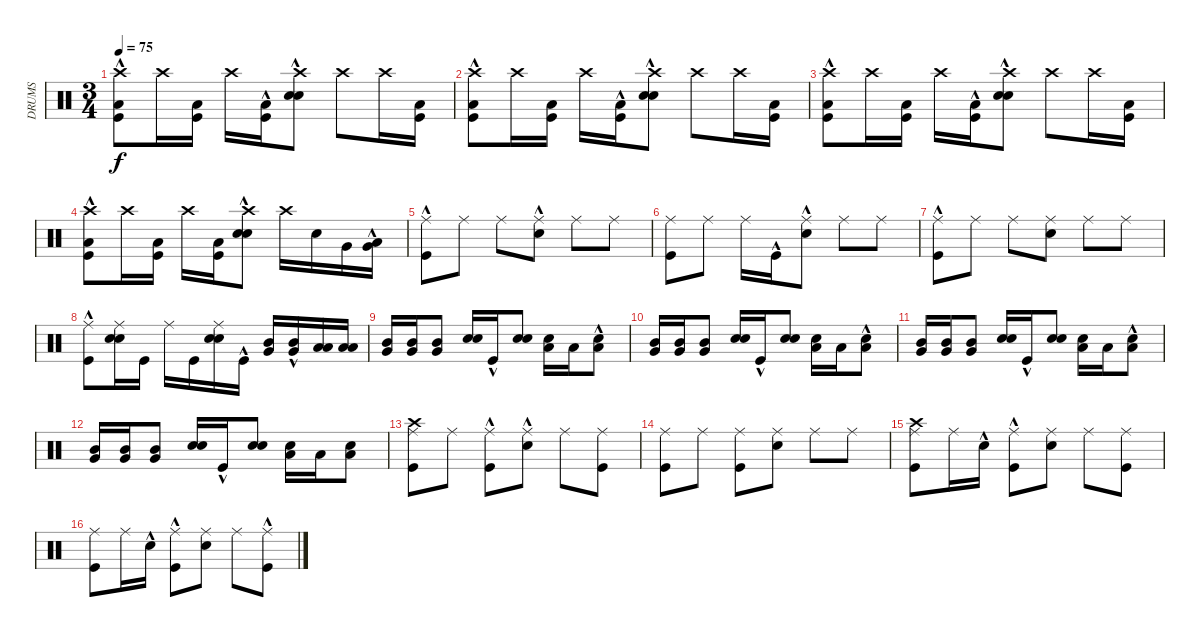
\track ("DRUMS" "DRUMS") {instrument percussion}
\staff {score}
\articulation defaults
\ts (3 4)
\tempo 75
\clef neutral
\ks c
("Kick (hit)"{hac} "Low Floor Tom (hit)"{hac} "Crash high (hit)").8{dy f} "Crash high (hit)".16 ("Kick (hit)" "Low Floor Tom (hit)").16 "Crash high (hit)".16 ("Kick (hit)"{hac} "Low Floor Tom (hit)").16 ("Snare (hit) 2"{hac} "Snare (hit) 2"{hac} "Crash high (hit)").8 "Crash high (hit)".8 "Crash high (hit)".16 ("Kick (hit)" "Low Floor Tom (hit)").16 |
("Kick (hit)"{hac} "Low Floor Tom (hit)"{hac} "Crash high (hit)").8 "Crash high (hit)".16 ("Kick (hit)" "Low Floor Tom (hit)").16 "Crash high (hit)".16 ("Kick (hit)"{hac} "Low Floor Tom (hit)").16 ("Snare (hit) 2"{hac} "Snare (hit) 2"{hac} "Crash high (hit)").8 "Crash high (hit)".8 "Crash high (hit)".16 ("Kick (hit)" "Low Floor Tom (hit)").16 |
("Kick (hit)"{hac} "Low Floor Tom (hit)"{hac} "Crash high (hit)").8 "Crash high (hit)".16 ("Kick (hit)" "Low Floor Tom (hit)").16 "Crash high (hit)".16 ("Kick (hit)"{hac} "Low Floor Tom (hit)").16 ("Snare (hit) 2"{hac} "Snare (hit) 2"{hac} "Crash high (hit)").8 "Crash high (hit)".8 "Crash high (hit)".16 ("Kick (hit)" "Low Floor Tom (hit)").16 |
("Kick (hit)"{hac} "Low Floor Tom (hit)"{hac} "Crash high (hit)").8 "Crash high (hit)".16 ("Kick (hit)" "Low Floor Tom (hit)").16 "Crash high (hit)".16 ("Kick (hit)" "Low Floor Tom (hit)").16 ("Snare (hit) 2"{hac} "Snare (hit) 2"{hac} "Crash high (hit)").8 "Crash high (hit)".16 "Snare (hit) 2".16 "Very Low Tom (hit)".16 ("Very Low Tom (hit)" "Low Tom (hit)"{hac}).16 |
("Kick (hit)"{hac} "Ride (middle)").8 "Ride (middle)".8 "Ride (middle)".8 ("Snare (hit) 2"{hac} "Ride (middle)").8 "Ride (middle)".8 "Ride (middle)".8 |
("Kick (hit)" "Ride (middle)").8 "Ride (middle)".8 "Ride (middle)".16 "Kick (hit)"{hac}.16 ("Snare (hit) 2"{hac} "Ride (middle)").8 "Ride (middle)".8 "Ride (middle)".8 |
("Kick (hit)"{hac} "Ride (middle)").8 "Ride (middle)".8 "Ride (middle)".8 ("Snare (hit) 2" "Ride (middle)").8 "Ride (middle)".8 "Ride (middle)".8 |
("Kick (hit)"{hac} "Ride (middle)").8 ("Snare (hit) 2" "Ride (middle)" "Snare (hit) 2").16 "Kick (hit)".16 "Ride (middle)".16 "Kick (hit)".16 ("Snare (hit) 2" "Ride (middle)" "Snare (hit) 2").16 "Kick (hit)"{hac}.16 ("Very Low Tom (hit)" "Mid Tom (hit)").16 ("Very Low Tom (hit)" "Mid Tom (hit)"{hac}).16 ("Low Floor Tom (hit)" "Low Floor Tom (hit)").16 ("Low Floor Tom (hit)" "Low Floor Tom (hit)").16 |
("Very Low Tom (hit)" "Mid Tom (hit)").16 ("Very Low Tom (hit)" "Mid Tom (hit)").16 ("Very Low Tom (hit)" "Mid Tom (hit)").8 ("Snare (hit) 2" "Snare (hit) 2").16 "Kick (hit)"{hac}.16 ("Snare (hit) 2" "Snare (hit) 2").8 ("Snare (hit) 2" "Low Floor Tom (hit)").16 "Low Floor Tom (hit)".16 ("Snare (hit) 2"{hac} "Low Floor Tom (hit)").8 |
("Very Low Tom (hit)" "Mid Tom (hit)").16 ("Very Low Tom (hit)" "Mid Tom (hit)").16 ("Very Low Tom (hit)" "Mid Tom (hit)").8 ("Snare (hit) 2" "Snare (hit) 2").16 "Kick (hit)"{hac}.16 ("Snare (hit) 2" "Snare (hit) 2").8 ("Snare (hit) 2" "Low Floor Tom (hit)").16 "Low Floor Tom (hit)".16 ("Snare (hit) 2"{hac} "Low Floor Tom (hit)").8 |
("Very Low Tom (hit)" "Mid Tom (hit)").16 ("Very Low Tom (hit)" "Mid Tom (hit)").16 ("Very Low Tom (hit)" "Mid Tom (hit)").8 ("Snare (hit) 2" "Snare (hit) 2").16 "Kick (hit)"{hac}.16 ("Snare (hit) 2" "Snare (hit) 2").8 ("Snare (hit) 2" "Low Floor Tom (hit)").16 "Low Floor Tom (hit)".16 ("Snare (hit) 2"{hac} "Low Floor Tom (hit)").8 |
("Very Low Tom (hit)" "Mid Tom (hit)").16 ("Very Low Tom (hit)" "Mid Tom (hit)").16 ("Very Low Tom (hit)" "Mid Tom (hit)").8 ("Snare (hit) 2" "Snare (hit) 2").16 "Kick (hit)"{hac}.16 ("Snare (hit) 2" "Snare (hit) 2").8 ("Snare (hit) 2" "Low Floor Tom (hit)").16 "Low Floor Tom (hit)".16 ("Snare (hit) 2" "Low Floor Tom (hit)").8 |
("Kick (hit)" "Ride (middle)" "Crash high (hit)").8 "Ride (middle)".8 ("Kick (hit)"{hac} "Ride (middle)").8 ("Electric Snare (hit)"{hac} "Ride (middle)").8 "Ride (middle)".8 ("Kick (hit)" "Ride (middle)").8 |
("Kick (hit)" "Ride (middle)").8 "Ride (middle)".8 ("Kick (hit)" "Ride (middle)").8 ("Electric Snare (hit)" "Ride (middle)").8 "Ride (middle)".8 "Ride (middle)".8 |
("Kick (hit)" "Ride (middle)" "Crash high (hit)").8 "Ride (middle)".16 "Electric Snare (hit)"{hac}.16 ("Kick (hit)"{hac} "Ride (middle)").8 ("Electric Snare (hit)" "Ride (middle)").8 "Ride (middle)".8 ("Kick (hit)" "Ride (middle)").8 |
("Kick (hit)" "Ride (middle)").8 "Ride (middle)".16 "Electric Snare (hit)"{hac}.16 ("Kick (hit)"{hac} "Ride (middle)").8 ("Electric Snare (hit)" "Ride (middle)").8 "Ride (middle)".8 ("Kick (hit)"{hac} "Ride (middle)").8
